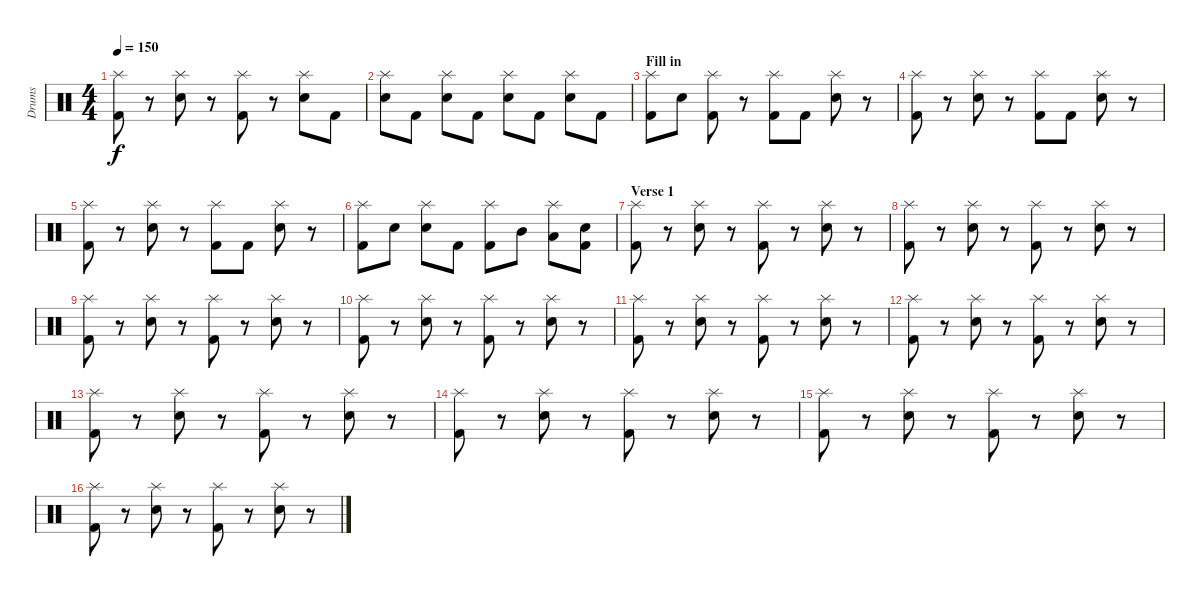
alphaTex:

\track ("Drums" "Drums") {instrument percussion}
\staff {score}
\articulation defaults
\ts (4 4)
\tempo 150
\clef neutral
\ks c
("Splash (hit)" "Kick (hit) 2").8{dy f} r.8 ("Splash (hit)" "Electric Snare (hit)").8 r.8 ("Splash (hit)" "Kick (hit) 2").8 r.8 ("Splash (hit)" "Electric Snare (hit)").8 "Kick (hit) 2".8 |
("Splash (hit)" "Electric Snare (hit)").8 "Kick (hit) 2".8 ("Splash (hit)" "Electric Snare (hit)").8 "Kick (hit) 2".8 ("Splash (hit)" "Electric Snare (hit)").8 "Kick (hit) 2".8 ("Splash (hit)" "Electric Snare (hit)").8 "Kick (hit) 2".8 |
\section ("" "Fill in")
("Splash (hit)" "Kick (hit) 2").8 "Electric Snare (hit)".8 ("Splash (hit)" "Kick (hit) 2").8 r.8 ("Splash (hit)" "Kick (hit) 2").8 "Kick (hit) 2".8 ("Splash (hit)" "Electric Snare (hit)").8 r.8 |
("Splash (hit)" "Kick (hit) 2").8 r.8 ("Splash (hit)" "Electric Snare (hit)").8 r.8 ("Splash (hit)" "Kick (hit) 2").8 "Kick (hit) 2".8 ("Splash (hit)" "Electric Snare (hit)").8 r.8 |
("Splash (hit)" "Kick (hit) 2").8 r.8 ("Splash (hit)" "Electric Snare (hit)").8 r.8 ("Splash (hit)" "Kick (hit) 2").8 "Kick (hit) 2".8 ("Splash (hit)" "Electric Snare (hit)").8 r.8 |
("Splash (hit)" "Kick (hit) 2").8 "Electric Snare (hit)".8 ("Splash (hit)" "Electric Snare (hit)").8 "Kick (hit) 2".8 ("Splash (hit)" "Kick (hit) 2").8 "Mid Tom (hit)".8 ("Splash (hit)" "Low Tom (hit)").8 ("Electric Snare (hit)" "Kick (hit) 2").8 |
\section ("" "Verse 1")
("Splash (hit)" "Kick (hit) 2").8 r.8 ("Splash (hit)" "Electric Snare (hit)").8 r.8 ("Splash (hit)" "Kick (hit) 2").8 r.8 ("Splash (hit)" "Electric Snare (hit)").8 r.8 |
("Splash (hit)" "Kick (hit) 2").8 r.8 ("Splash (hit)" "Electric Snare (hit)").8 r.8 ("Splash (hit)" "Kick (hit) 2").8 r.8 ("Splash (hit)" "Electric Snare (hit)").8 r.8 |
("Splash (hit)" "Kick (hit) 2").8 r.8 ("Splash (hit)" "Electric Snare (hit)").8 r.8 ("Splash (hit)" "Kick (hit) 2").8 r.8 ("Splash (hit)" "Electric Snare (hit)").8 r.8 |
("Splash (hit)" "Kick (hit) 2").8 r.8 ("Splash (hit)" "Electric Snare (hit)").8 r.8 ("Splash (hit)" "Kick (hit) 2").8 r.8 ("Splash (hit)" "Electric Snare (hit)").8 r.8 |
("Splash (hit)" "Kick (hit) 2").8 r.8 ("Splash (hit)" "Electric Snare (hit)").8 r.8 ("Splash (hit)" "Kick (hit) 2").8 r.8 ("Splash (hit)" "Electric Snare (hit)").8 r.8 |
("Splash (hit)" "Kick (hit) 2").8 r.8 ("Splash (hit)" "Electric Snare (hit)").8 r.8 ("Splash (hit)" "Kick (hit) 2").8 r.8 ("Splash (hit)" "Electric Snare (hit)").8 r.8 |
("Splash (hit)" "Kick (hit) 2").8 r.8 ("Splash (hit)" "Electric Snare (hit)").8 r.8 ("Splash (hit)" "Kick (hit) 2").8 r.8 ("Splash (hit)" "Electric Snare (hit)").8 r.8 |
("Splash (hit)" "Kick (hit) 2").8 r.8 ("Splash (hit)" "Electric Snare (hit)").8 r.8 ("Splash (hit)" "Kick (hit) 2").8 r.8 ("Splash (hit)" "Electric Snare (hit)").8 r.8 |
("Splash (hit)" "Kick (hit) 2").8 r.8 ("Splash (hit)" "Electric Snare (hit)").8 r.8 ("Splash (hit)" "Kick (hit) 2").8 r.8 ("Splash (hit)" "Electric Snare (hit)").8 r.8 |
("Splash (hit)" "Kick (hit) 2").8 r.8 ("Splash (hit)" "Electric Snare (hit)").8 r.8 ("Splash (hit)" "Kick (hit) 2").8 r.8 ("Splash (hit)" "Electric Snare (hit)").8 r.8
